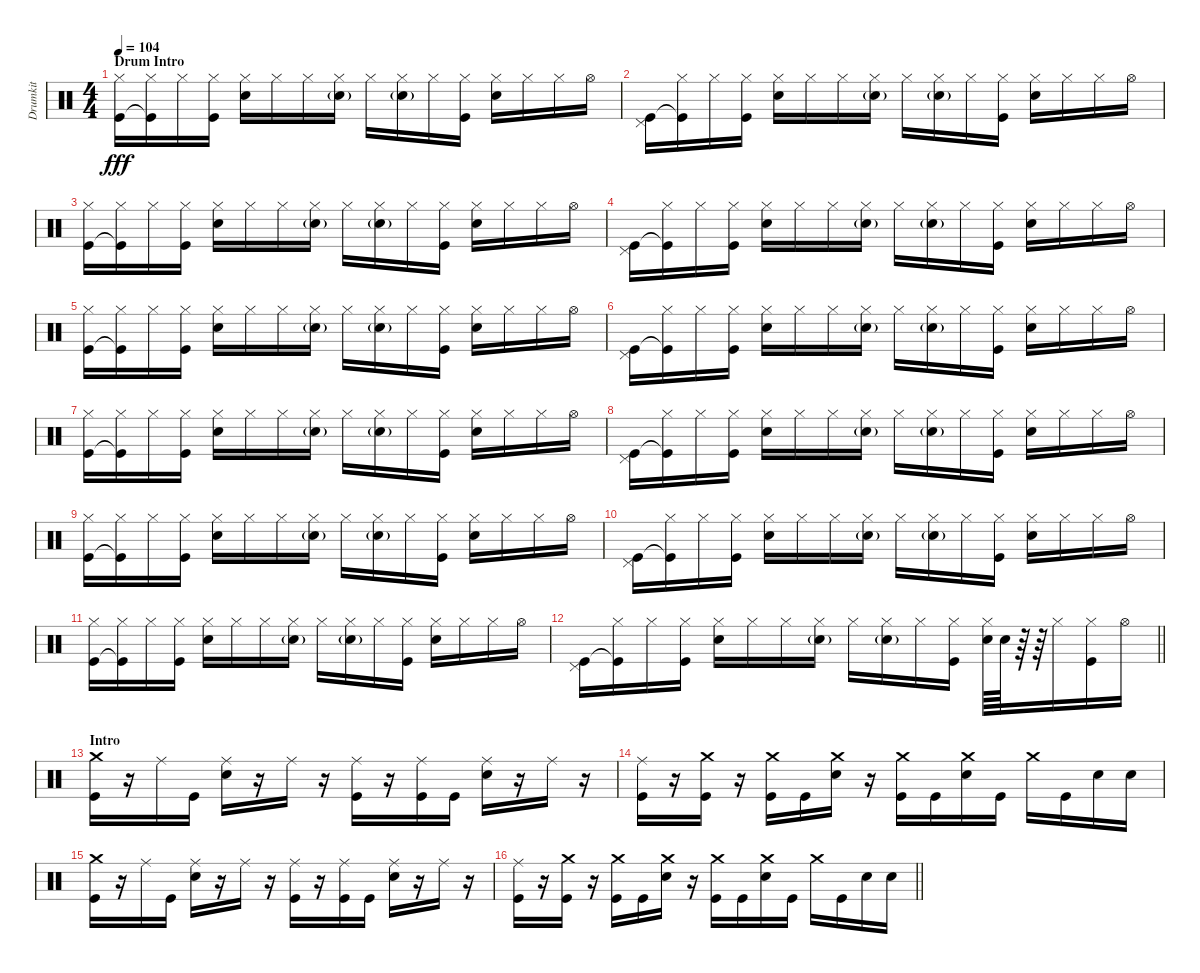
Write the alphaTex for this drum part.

\track ("Drumkit" "Drumkit") {instrument percussion}
\staff {score}
\articulation defaults
\ts (4 4)
\section ("" "Drum Intro")
\tempo 104
\clef neutral
\ks c
("Hi-Hat (closed)" "Kick (hit)").16{dy fff} ("Hi-Hat (closed)" "Kick (hit)"{t}).16 "Hi-Hat (closed)".16 ("Hi-Hat (closed)" "Kick (hit)").16 ("Hi-Hat (closed)" "Snare (hit) 2").16 "Hi-Hat (closed)".16 "Hi-Hat (closed)".16 ("Hi-Hat (closed)" "Snare (hit) 2"{g}).16 "Hi-Hat (closed)".16 ("Hi-Hat (closed)" "Snare (hit) 2"{g}).16 "Hi-Hat (closed)".16 ("Hi-Hat (closed)" "Kick (hit)").16 ("Hi-Hat (closed)" "Snare (hit) 2").16 "Hi-Hat (closed)".16 "Hi-Hat (closed)".16 "Hi-Hat (open)".16 |
("Pedal Hi-Hat (hit)" "Kick (hit)").16 ("Hi-Hat (closed)" "Kick (hit)"{t}).16 "Hi-Hat (closed)".16 ("Hi-Hat (closed)" "Kick (hit)").16 ("Hi-Hat (closed)" "Snare (hit) 2").16 "Hi-Hat (closed)".16 "Hi-Hat (closed)".16 ("Hi-Hat (closed)" "Snare (hit) 2"{g}).16 "Hi-Hat (closed)".16 ("Hi-Hat (closed)" "Snare (hit) 2"{g}).16 "Hi-Hat (closed)".16 ("Hi-Hat (closed)" "Kick (hit)").16 ("Hi-Hat (closed)" "Snare (hit) 2").16 "Hi-Hat (closed)".16 "Hi-Hat (closed)".16 "Hi-Hat (open)".16 |
("Hi-Hat (closed)" "Kick (hit)").16 ("Hi-Hat (closed)" "Kick (hit)"{t}).16 "Hi-Hat (closed)".16 ("Hi-Hat (closed)" "Kick (hit)").16 ("Hi-Hat (closed)" "Snare (hit) 2").16 "Hi-Hat (closed)".16 "Hi-Hat (closed)".16 ("Hi-Hat (closed)" "Snare (hit) 2"{g}).16 "Hi-Hat (closed)".16 ("Hi-Hat (closed)" "Snare (hit) 2"{g}).16 "Hi-Hat (closed)".16 ("Hi-Hat (closed)" "Kick (hit)").16 ("Hi-Hat (closed)" "Snare (hit) 2").16 "Hi-Hat (closed)".16 "Hi-Hat (closed)".16 "Hi-Hat (open)".16 |
("Pedal Hi-Hat (hit)" "Kick (hit)").16 ("Hi-Hat (closed)" "Kick (hit)"{t}).16 "Hi-Hat (closed)".16 ("Hi-Hat (closed)" "Kick (hit)").16 ("Hi-Hat (closed)" "Snare (hit) 2").16 "Hi-Hat (closed)".16 "Hi-Hat (closed)".16 ("Hi-Hat (closed)" "Snare (hit) 2"{g}).16 "Hi-Hat (closed)".16 ("Hi-Hat (closed)" "Snare (hit) 2"{g}).16 "Hi-Hat (closed)".16 ("Hi-Hat (closed)" "Kick (hit)").16 ("Hi-Hat (closed)" "Snare (hit) 2").16 "Hi-Hat (closed)".16 "Hi-Hat (closed)".16 "Hi-Hat (open)".16 |
("Hi-Hat (closed)" "Kick (hit)").16 ("Hi-Hat (closed)" "Kick (hit)"{t}).16 "Hi-Hat (closed)".16 ("Hi-Hat (closed)" "Kick (hit)").16 ("Hi-Hat (closed)" "Snare (hit) 2").16 "Hi-Hat (closed)".16 "Hi-Hat (closed)".16 ("Hi-Hat (closed)" "Snare (hit) 2"{g}).16 "Hi-Hat (closed)".16 ("Hi-Hat (closed)" "Snare (hit) 2"{g}).16 "Hi-Hat (closed)".16 ("Hi-Hat (closed)" "Kick (hit)").16 ("Hi-Hat (closed)" "Snare (hit) 2").16 "Hi-Hat (closed)".16 "Hi-Hat (closed)".16 "Hi-Hat (open)".16 |
("Pedal Hi-Hat (hit)" "Kick (hit)").16 ("Hi-Hat (closed)" "Kick (hit)"{t}).16 "Hi-Hat (closed)".16 ("Hi-Hat (closed)" "Kick (hit)").16 ("Hi-Hat (closed)" "Snare (hit) 2").16 "Hi-Hat (closed)".16 "Hi-Hat (closed)".16 ("Hi-Hat (closed)" "Snare (hit) 2"{g}).16 "Hi-Hat (closed)".16 ("Hi-Hat (closed)" "Snare (hit) 2"{g}).16 "Hi-Hat (closed)".16 ("Hi-Hat (closed)" "Kick (hit)").16 ("Hi-Hat (closed)" "Snare (hit) 2").16 "Hi-Hat (closed)".16 "Hi-Hat (closed)".16 "Hi-Hat (open)".16 |
("Hi-Hat (closed)" "Kick (hit)").16 ("Hi-Hat (closed)" "Kick (hit)"{t}).16 "Hi-Hat (closed)".16 ("Hi-Hat (closed)" "Kick (hit)").16 ("Hi-Hat (closed)" "Snare (hit) 2").16 "Hi-Hat (closed)".16 "Hi-Hat (closed)".16 ("Hi-Hat (closed)" "Snare (hit) 2"{g}).16 "Hi-Hat (closed)".16 ("Hi-Hat (closed)" "Snare (hit) 2"{g}).16 "Hi-Hat (closed)".16 ("Hi-Hat (closed)" "Kick (hit)").16 ("Hi-Hat (closed)" "Snare (hit) 2").16 "Hi-Hat (closed)".16 "Hi-Hat (closed)".16 "Hi-Hat (open)".16 |
("Pedal Hi-Hat (hit)" "Kick (hit)").16 ("Hi-Hat (closed)" "Kick (hit)"{t}).16 "Hi-Hat (closed)".16 ("Hi-Hat (closed)" "Kick (hit)").16 ("Hi-Hat (closed)" "Snare (hit) 2").16 "Hi-Hat (closed)".16 "Hi-Hat (closed)".16 ("Hi-Hat (closed)" "Snare (hit) 2"{g}).16 "Hi-Hat (closed)".16 ("Hi-Hat (closed)" "Snare (hit) 2"{g}).16 "Hi-Hat (closed)".16 ("Hi-Hat (closed)" "Kick (hit)").16 ("Hi-Hat (closed)" "Snare (hit) 2").16 "Hi-Hat (closed)".16 "Hi-Hat (closed)".16 "Hi-Hat (open)".16 |
("Hi-Hat (closed)" "Kick (hit)").16 ("Hi-Hat (closed)" "Kick (hit)"{t}).16 "Hi-Hat (closed)".16 ("Hi-Hat (closed)" "Kick (hit)").16 ("Hi-Hat (closed)" "Snare (hit) 2").16 "Hi-Hat (closed)".16 "Hi-Hat (closed)".16 ("Hi-Hat (closed)" "Snare (hit) 2"{g}).16 "Hi-Hat (closed)".16 ("Hi-Hat (closed)" "Snare (hit) 2"{g}).16 "Hi-Hat (closed)".16 ("Hi-Hat (closed)" "Kick (hit)").16 ("Hi-Hat (closed)" "Snare (hit) 2").16 "Hi-Hat (closed)".16 "Hi-Hat (closed)".16 "Hi-Hat (open)".16 |
("Pedal Hi-Hat (hit)" "Kick (hit)").16 ("Hi-Hat (closed)" "Kick (hit)"{t}).16 "Hi-Hat (closed)".16 ("Hi-Hat (closed)" "Kick (hit)").16 ("Hi-Hat (closed)" "Snare (hit) 2").16 "Hi-Hat (closed)".16 "Hi-Hat (closed)".16 ("Hi-Hat (closed)" "Snare (hit) 2"{g}).16 "Hi-Hat (closed)".16 ("Hi-Hat (closed)" "Snare (hit) 2"{g}).16 "Hi-Hat (closed)".16 ("Hi-Hat (closed)" "Kick (hit)").16 ("Hi-Hat (closed)" "Snare (hit) 2").16 "Hi-Hat (closed)".16 "Hi-Hat (closed)".16 "Hi-Hat (open)".16 |
("Hi-Hat (closed)" "Kick (hit)").16 ("Hi-Hat (closed)" "Kick (hit)"{t}).16 "Hi-Hat (closed)".16 ("Hi-Hat (closed)" "Kick (hit)").16 ("Hi-Hat (closed)" "Snare (hit) 2").16 "Hi-Hat (closed)".16 "Hi-Hat (closed)".16 ("Hi-Hat (closed)" "Snare (hit) 2"{g}).16 "Hi-Hat (closed)".16 ("Hi-Hat (closed)" "Snare (hit) 2"{g}).16 "Hi-Hat (closed)".16 ("Hi-Hat (closed)" "Kick (hit)").16 ("Hi-Hat (closed)" "Snare (hit) 2").16 "Hi-Hat (closed)".16 "Hi-Hat (closed)".16 "Hi-Hat (open)".16 |
\barLineRight lightlight
("Pedal Hi-Hat (hit)" "Kick (hit)").16 ("Hi-Hat (closed)" "Kick (hit)"{t}).16 "Hi-Hat (closed)".16 ("Hi-Hat (closed)" "Kick (hit)").16 ("Hi-Hat (closed)" "Snare (hit) 2").16 "Hi-Hat (closed)".16 "Hi-Hat (closed)".16 ("Hi-Hat (closed)" "Snare (hit) 2"{g}).16 "Hi-Hat (closed)".16 ("Hi-Hat (closed)" "Snare (hit) 2"{g}).16 "Hi-Hat (closed)".16 ("Hi-Hat (closed)" "Kick (hit)").16 ("Hi-Hat (closed)" "Snare (hit) 2").64 "Snare (hit) 2".64 r.64 r.64 "Hi-Hat (closed)".16 ("Hi-Hat (closed)" "Kick (hit)").16 "Hi-Hat (open)".16 |
\section ("" "Intro")
("Crash medium (hit)" "Kick (hit)").16 r.16 "Ride (middle)".16 "Kick (hit)".16 ("Ride (middle)" "Snare (hit) 2").16 r.16 "Ride (middle)".16 r.16 ("Ride (middle)" "Kick (hit)").16 r.16 ("Ride (middle)" "Kick (hit)").16 "Kick (hit)".16 ("Ride (middle)" "Snare (hit) 2").16 r.16 "Ride (middle)".16 r.16 |
("Ride (middle)" "Kick (hit)").16 r.16 ("Crash medium (hit)" "Kick (hit)").16 r.16 ("Crash medium (hit)" "Kick (hit)").16 "Kick (hit)".16 ("Crash medium (hit)" "Snare (hit) 2").16 r.16 ("Crash medium (hit)" "Kick (hit)").16 "Kick (hit)".16 ("Crash medium (hit)" "Snare (hit) 2").16 "Kick (hit)".16 "Crash medium (hit)".16 "Kick (hit)".16 "Snare (hit) 2".16 "Snare (hit) 2".16 |
("Crash medium (hit)" "Kick (hit)").16 r.16 "Ride (middle)".16 "Kick (hit)".16 ("Ride (middle)" "Snare (hit) 2").16 r.16 "Ride (middle)".16 r.16 ("Ride (middle)" "Kick (hit)").16 r.16 ("Ride (middle)" "Kick (hit)").16 "Kick (hit)".16 ("Ride (middle)" "Snare (hit) 2").16 r.16 "Ride (middle)".16 r.16 |
\barLineRight lightlight
("Ride (middle)" "Kick (hit)").16 r.16 ("Crash medium (hit)" "Kick (hit)").16 r.16 ("Crash medium (hit)" "Kick (hit)").16 "Kick (hit)".16 ("Crash medium (hit)" "Snare (hit) 2").16 r.16 ("Crash medium (hit)" "Kick (hit)").16 "Kick (hit)".16 ("Crash medium (hit)" "Snare (hit) 2").16 "Kick (hit)".16 "Crash medium (hit)".16 "Kick (hit)".16 "Snare (hit) 2".16 "Snare (hit) 2".16
